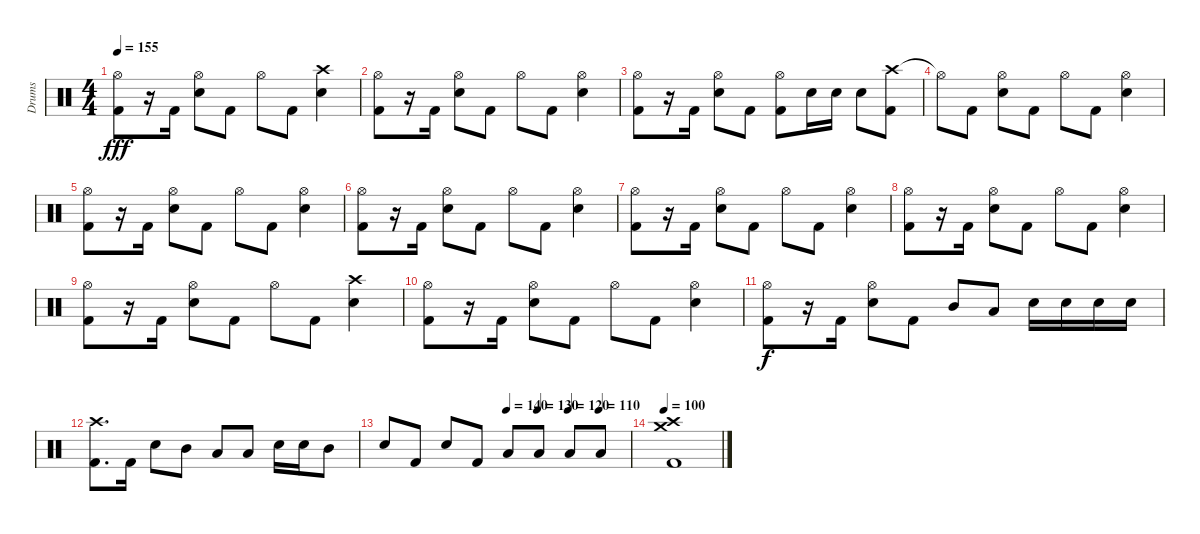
\track ("Drums" "Drums") {instrument percussion}
\staff {score}
\articulation defaults
\ts (4 4)
\tempo 155
\clef neutral
\ks c
("Hi-Hat (open)" "Kick (hit) 2").8{dy fff} r.16 "Kick (hit) 2".16 ("Hi-Hat (open)" "Electric Snare (hit)").8 "Kick (hit) 2".8 "Hi-Hat (open)".8 "Kick (hit) 2".8 ("Crash high (hit)" "Electric Snare (hit)").4 |
("Hi-Hat (open)" "Kick (hit) 2").8 r.16 "Kick (hit) 2".16 ("Hi-Hat (open)" "Electric Snare (hit)").8 "Kick (hit) 2".8 "Hi-Hat (open)".8 "Kick (hit) 2".8 ("Hi-Hat (open)" "Electric Snare (hit)").4 |
("Hi-Hat (open)" "Kick (hit) 2").8 r.16 "Kick (hit) 2".16 ("Hi-Hat (open)" "Electric Snare (hit)").8 "Kick (hit) 2".8 ("Hi-Hat (open)" "Kick (hit) 2").8 "Electric Snare (hit)".16 "Electric Snare (hit)".16 "Electric Snare (hit)".8 ("Crash high (hit)" "Kick (hit) 2").8 |
"Hi-Hat (open)"{t}.8 "Kick (hit) 2".8 ("Hi-Hat (open)" "Electric Snare (hit)").8 "Kick (hit) 2".8 "Hi-Hat (open)".8 "Kick (hit) 2".8 ("Hi-Hat (open)" "Electric Snare (hit)").4 |
("Hi-Hat (open)" "Kick (hit) 2").8 r.16 "Kick (hit) 2".16 ("Hi-Hat (open)" "Electric Snare (hit)").8 "Kick (hit) 2".8 "Hi-Hat (open)".8 "Kick (hit) 2".8 ("Hi-Hat (open)" "Electric Snare (hit)").4 |
("Hi-Hat (open)" "Kick (hit) 2").8 r.16 "Kick (hit) 2".16 ("Hi-Hat (open)" "Electric Snare (hit)").8 "Kick (hit) 2".8 "Hi-Hat (open)".8 "Kick (hit) 2".8 ("Hi-Hat (open)" "Electric Snare (hit)").4 |
("Hi-Hat (open)" "Kick (hit) 2").8 r.16 "Kick (hit) 2".16 ("Hi-Hat (open)" "Electric Snare (hit)").8 "Kick (hit) 2".8 "Hi-Hat (open)".8 "Kick (hit) 2".8 ("Hi-Hat (open)" "Electric Snare (hit)").4 |
("Hi-Hat (open)" "Kick (hit) 2").8 r.16 "Kick (hit) 2".16 ("Hi-Hat (open)" "Electric Snare (hit)").8 "Kick (hit) 2".8 "Hi-Hat (open)".8 "Kick (hit) 2".8 ("Hi-Hat (open)" "Electric Snare (hit)").4 |
("Hi-Hat (open)" "Kick (hit) 2").8 r.16 "Kick (hit) 2".16 ("Hi-Hat (open)" "Electric Snare (hit)").8 "Kick (hit) 2".8 "Hi-Hat (open)".8 "Kick (hit) 2".8 ("Crash high (hit)" "Electric Snare (hit)").4 |
("Hi-Hat (open)" "Kick (hit) 2").8 r.16 "Kick (hit) 2".16 ("Hi-Hat (open)" "Electric Snare (hit)").8 "Kick (hit) 2".8 "Hi-Hat (open)".8 "Kick (hit) 2".8 ("Hi-Hat (open)" "Electric Snare (hit)").4 |
("Hi-Hat (open)" "Kick (hit) 2").8{dy f} r.16 "Kick (hit) 2".16 ("Hi-Hat (open)" "Snare (hit) 2").8 "Kick (hit) 2".8 "Mid Tom (hit)".8 "Low Tom (hit)".8 "Snare (hit) 2".16 "Snare (hit) 2".16 "Snare (hit) 2".16 "Snare (hit) 2".16 |
("Crash high (hit)" "Kick (hit) 2").8{d} "Kick (hit) 2".16 "Snare (hit) 2".8 "Mid Tom (hit)".8 "Low Tom (hit)".8 "Low Tom (hit)".8 "Snare (hit) 2".16 "Snare (hit) 2".16 "Mid Tom (hit)".8 |
\tempo (140 0.5)
\tempo (130 0.625)
\tempo (120 0.75)
\tempo (110 0.875)
"Snare (hit) 2".8 "Kick (hit) 2".8 "Snare (hit) 2".8 "Kick (hit) 2".8 "Low Tom (hit)".8 "Low Tom (hit)".8 "Low Floor Tom (hit)".8 "Low Floor Tom (hit)".8 |
\tempo 100
("Crash high (hit)" "Crash medium (hit)" "Kick (hit) 2").1
